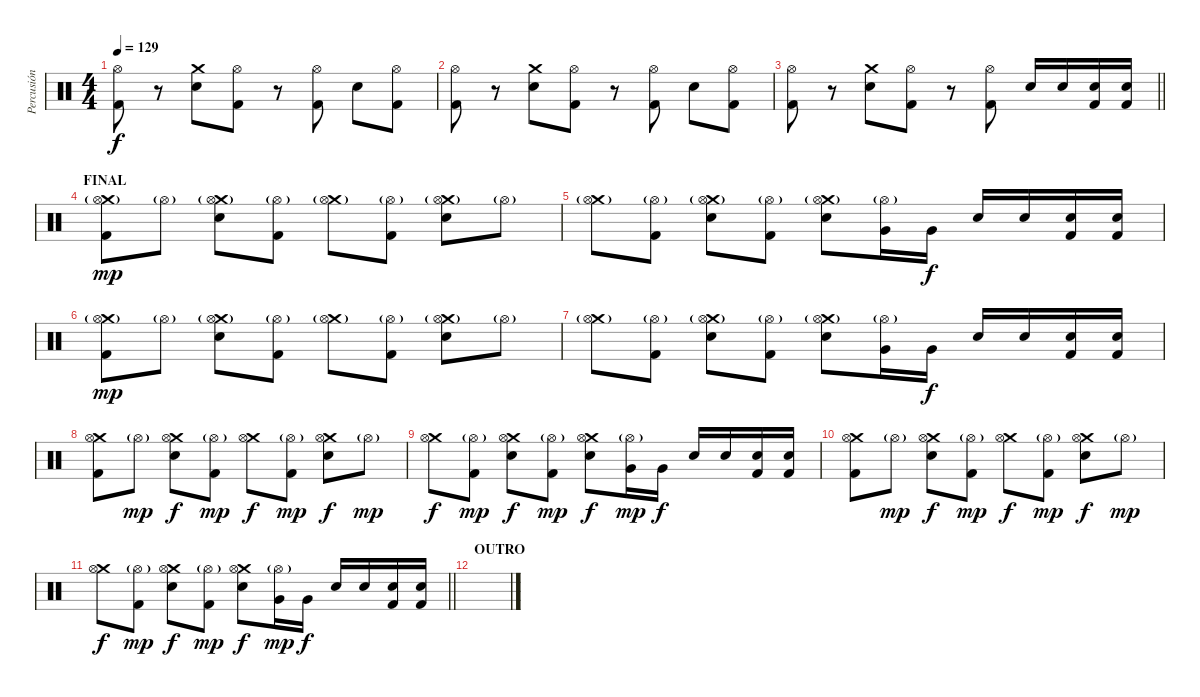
\track ("Percusión" "Percusión") {instrument percussion}
\staff {score}
\articulation defaults
\ts (4 4)
\tempo 129
\clef neutral
\ks c
("Hi-Hat (open)" "Kick (hit) 2").8{dy f} r.8 ("Crash medium (hit)" "Snare (hit) 2").8 ("Hi-Hat (open)" "Kick (hit) 2").8 r.8 ("Hi-Hat (open)" "Kick (hit) 2").8 "Snare (hit) 2".8 ("Hi-Hat (open)" "Kick (hit) 2").8 |
("Hi-Hat (open)" "Kick (hit) 2").8 r.8 ("Crash medium (hit)" "Snare (hit) 2").8 ("Hi-Hat (open)" "Kick (hit) 2").8 r.8 ("Hi-Hat (open)" "Kick (hit) 2").8 "Snare (hit) 2".8 ("Hi-Hat (open)" "Kick (hit) 2").8 |
\barLineRight lightlight
("Hi-Hat (open)" "Kick (hit) 2").8 r.8 ("Crash medium (hit)" "Snare (hit) 2").8 ("Hi-Hat (open)" "Kick (hit) 2").8 r.8 ("Hi-Hat (open)" "Kick (hit) 2").8 "Snare (hit) 2".16 "Snare (hit) 2".16 ("Snare (hit) 2" "Kick (hit) 2").16 ("Snare (hit) 2" "Kick (hit) 2").16 |
\section ("" "FINAL")
("Crash medium (hit)"{g} "Hi-Hat (open)" "Kick (hit) 2").8{dy mp} "Hi-Hat (open)"{g}.8 ("Crash medium (hit)"{g} "Hi-Hat (open)" "Snare (hit) 2").8 ("Hi-Hat (open)"{g} "Kick (hit) 2").8 ("Crash medium (hit)"{g} "Hi-Hat (open)").8 ("Hi-Hat (open)"{g} "Kick (hit) 2").8 ("Crash medium (hit)"{g} "Hi-Hat (open)" "Snare (hit) 2").8 "Hi-Hat (open)"{g}.8 |
("Crash medium (hit)"{g} "Hi-Hat (open)").8 ("Hi-Hat (open)"{g} "Kick (hit) 2").8 ("Crash medium (hit)"{g} "Hi-Hat (open)" "Snare (hit) 2").8 ("Hi-Hat (open)"{g} "Kick (hit) 2").8 ("Crash medium (hit)"{g} "Hi-Hat (open)" "Snare (hit) 2").8 ("Hi-Hat (open)"{g} "Very Low Tom (hit)").16 "Very Low Tom (hit)".16{dy f} "Snare (hit) 2".16 "Snare (hit) 2".16 ("Snare (hit) 2" "Kick (hit) 2").16 ("Snare (hit) 2" "Kick (hit) 2").16 |
("Crash medium (hit)"{g} "Hi-Hat (open)" "Kick (hit) 2").8{dy mp} "Hi-Hat (open)"{g}.8 ("Crash medium (hit)"{g} "Hi-Hat (open)" "Snare (hit) 2").8 ("Hi-Hat (open)"{g} "Kick (hit) 2").8 ("Crash medium (hit)"{g} "Hi-Hat (open)").8 ("Hi-Hat (open)"{g} "Kick (hit) 2").8 ("Crash medium (hit)"{g} "Hi-Hat (open)" "Snare (hit) 2").8 "Hi-Hat (open)"{g}.8 |
("Crash medium (hit)"{g} "Hi-Hat (open)").8 ("Hi-Hat (open)"{g} "Kick (hit) 2").8 ("Crash medium (hit)"{g} "Hi-Hat (open)" "Snare (hit) 2").8 ("Hi-Hat (open)"{g} "Kick (hit) 2").8 ("Crash medium (hit)"{g} "Hi-Hat (open)" "Snare (hit) 2").8 ("Hi-Hat (open)"{g} "Very Low Tom (hit)").16 "Very Low Tom (hit)".16{dy f} "Snare (hit) 2".16 "Snare (hit) 2".16 ("Snare (hit) 2" "Kick (hit) 2").16 ("Snare (hit) 2" "Kick (hit) 2").16 |
("Crash medium (hit)" "Hi-Hat (open)" "Kick (hit) 2").8 "Hi-Hat (open)"{g}.8{dy mp} ("Crash medium (hit)" "Hi-Hat (open)" "Snare (hit) 2").8{dy f} ("Hi-Hat (open)"{g} "Kick (hit) 2").8{dy mp} ("Crash medium (hit)" "Hi-Hat (open)").8{dy f} ("Hi-Hat (open)"{g} "Kick (hit) 2").8{dy mp} ("Crash medium (hit)" "Hi-Hat (open)" "Snare (hit) 2").8{dy f} "Hi-Hat (open)"{g}.8{dy mp} |
("Crash medium (hit)" "Hi-Hat (open)").8{dy f} ("Hi-Hat (open)"{g} "Kick (hit) 2").8{dy mp} ("Crash medium (hit)" "Hi-Hat (open)" "Snare (hit) 2").8{dy f} ("Hi-Hat (open)"{g} "Kick (hit) 2").8{dy mp} ("Crash medium (hit)" "Hi-Hat (open)" "Snare (hit) 2").8{dy f} ("Hi-Hat (open)"{g} "Very Low Tom (hit)").16{dy mp} "Very Low Tom (hit)".16{dy f} "Snare (hit) 2".16 "Snare (hit) 2".16 ("Snare (hit) 2" "Kick (hit) 2").16 ("Snare (hit) 2" "Kick (hit) 2").16 |
("Crash medium (hit)" "Hi-Hat (open)" "Kick (hit) 2").8 "Hi-Hat (open)"{g}.8{dy mp} ("Crash medium (hit)" "Hi-Hat (open)" "Snare (hit) 2").8{dy f} ("Hi-Hat (open)"{g} "Kick (hit) 2").8{dy mp} ("Crash medium (hit)" "Hi-Hat (open)").8{dy f} ("Hi-Hat (open)"{g} "Kick (hit) 2").8{dy mp} ("Crash medium (hit)" "Hi-Hat (open)" "Snare (hit) 2").8{dy f} "Hi-Hat (open)"{g}.8{dy mp} |
\barLineRight lightlight
("Crash medium (hit)" "Hi-Hat (open)").8{dy f} ("Hi-Hat (open)"{g} "Kick (hit) 2").8{dy mp} ("Crash medium (hit)" "Hi-Hat (open)" "Snare (hit) 2").8{dy f} ("Hi-Hat (open)"{g} "Kick (hit) 2").8{dy mp} ("Crash medium (hit)" "Hi-Hat (open)" "Snare (hit) 2").8{dy f} ("Hi-Hat (open)"{g} "Very Low Tom (hit)").16{dy mp} "Very Low Tom (hit)".16{dy f} "Snare (hit) 2".16 "Snare (hit) 2".16 ("Snare (hit) 2" "Kick (hit) 2").16 ("Snare (hit) 2" "Kick (hit) 2").16 |
\section ("" "OUTRO")
